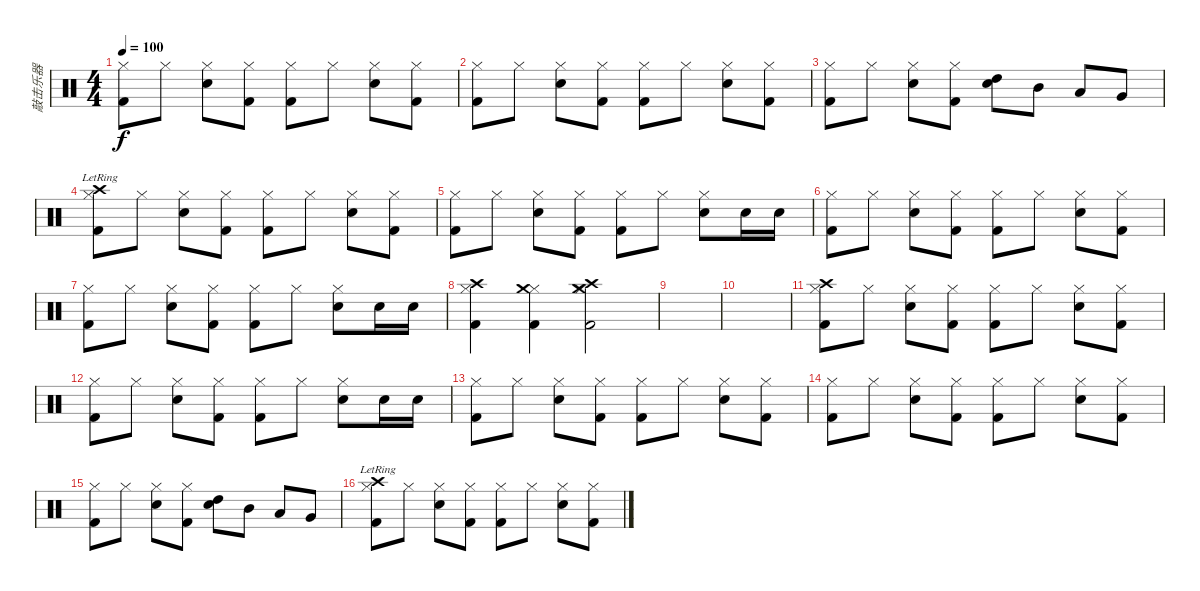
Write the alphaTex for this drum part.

\track ("敲击乐器" "敲击乐器") {instrument percussion}
\staff {score}
\articulation defaults
\ts (4 4)
\tempo 100
\clef neutral
\ks c
("Hi-Hat (closed)" "Kick (hit) 2").8{dy f} "Hi-Hat (closed)".8 ("Hi-Hat (closed)" "Electric Snare (hit)").8 ("Hi-Hat (closed)" "Kick (hit) 2").8 ("Hi-Hat (closed)" "Kick (hit) 2").8 "Hi-Hat (closed)".8 ("Hi-Hat (closed)" "Electric Snare (hit)").8 ("Hi-Hat (closed)" "Kick (hit) 2").8 |
("Hi-Hat (closed)" "Kick (hit) 2").8 "Hi-Hat (closed)".8 ("Hi-Hat (closed)" "Electric Snare (hit)").8 ("Hi-Hat (closed)" "Kick (hit) 2").8 ("Hi-Hat (closed)" "Kick (hit) 2").8 "Hi-Hat (closed)".8 ("Hi-Hat (closed)" "Electric Snare (hit)").8 ("Hi-Hat (closed)" "Kick (hit) 2").8 |
("Hi-Hat (closed)" "Kick (hit) 2").8 "Hi-Hat (closed)".8 ("Hi-Hat (closed)" "Electric Snare (hit)").8 ("Hi-Hat (closed)" "Kick (hit) 2").8 ("High Tom (hit)" "Electric Snare (hit)").8 "Mid Tom (hit)".8 "Low Tom (hit)".8 "Very Low Tom (hit)".8 |
("Hi-Hat (closed)" "Kick (hit) 2" "Crash high (hit)"{lr}).8 "Hi-Hat (closed)".8 ("Hi-Hat (closed)" "Electric Snare (hit)").8 ("Hi-Hat (closed)" "Kick (hit) 2").8 ("Hi-Hat (closed)" "Kick (hit) 2").8 "Hi-Hat (closed)".8 ("Hi-Hat (closed)" "Electric Snare (hit)").8 ("Hi-Hat (closed)" "Kick (hit) 2").8 |
("Hi-Hat (closed)" "Kick (hit) 2").8 "Hi-Hat (closed)".8 ("Hi-Hat (closed)" "Electric Snare (hit)").8 ("Hi-Hat (closed)" "Kick (hit) 2").8 ("Hi-Hat (closed)" "Kick (hit) 2").8 "Hi-Hat (closed)".8 ("Hi-Hat (closed)" "Electric Snare (hit)").8 "Electric Snare (hit)".16 "Electric Snare (hit)".16 |
("Hi-Hat (closed)" "Kick (hit) 2").8 "Hi-Hat (closed)".8 ("Hi-Hat (closed)" "Electric Snare (hit)").8 ("Hi-Hat (closed)" "Kick (hit) 2").8 ("Hi-Hat (closed)" "Kick (hit) 2").8 "Hi-Hat (closed)".8 ("Hi-Hat (closed)" "Electric Snare (hit)").8 ("Hi-Hat (closed)" "Kick (hit) 2").8 |
("Hi-Hat (closed)" "Kick (hit) 2").8 "Hi-Hat (closed)".8 ("Hi-Hat (closed)" "Electric Snare (hit)").8 ("Hi-Hat (closed)" "Kick (hit) 2").8 ("Hi-Hat (closed)" "Kick (hit) 2").8 "Hi-Hat (closed)".8 ("Hi-Hat (closed)" "Electric Snare (hit)").8 "Electric Snare (hit)".16 "Electric Snare (hit)".16 |
("Hi-Hat (closed)" "Kick (hit) 2" "Crash high (hit)").4 ("Hi-Hat (closed)" "Kick (hit) 2" "Crash medium (hit)").4 ("Hi-Hat (closed)" "Kick (hit) 2" "Crash high (hit)" "Crash medium (hit)").2 |
|
|
("Hi-Hat (closed)" "Crash high (hit)" "Kick (hit) 2").8 "Hi-Hat (closed)".8 ("Hi-Hat (closed)" "Electric Snare (hit)").8 ("Hi-Hat (closed)" "Kick (hit) 2").8 ("Hi-Hat (closed)" "Kick (hit) 2").8 "Hi-Hat (closed)".8 ("Hi-Hat (closed)" "Electric Snare (hit)").8 ("Hi-Hat (closed)" "Kick (hit) 2").8 |
("Hi-Hat (closed)" "Kick (hit) 2").8 "Hi-Hat (closed)".8 ("Hi-Hat (closed)" "Electric Snare (hit)").8 ("Hi-Hat (closed)" "Kick (hit) 2").8 ("Hi-Hat (closed)" "Kick (hit) 2").8 "Hi-Hat (closed)".8 ("Hi-Hat (closed)" "Electric Snare (hit)").8 "Electric Snare (hit)".16 "Electric Snare (hit)".16 |
("Hi-Hat (closed)" "Kick (hit) 2").8 "Hi-Hat (closed)".8 ("Hi-Hat (closed)" "Electric Snare (hit)").8 ("Hi-Hat (closed)" "Kick (hit) 2").8 ("Hi-Hat (closed)" "Kick (hit) 2").8 "Hi-Hat (closed)".8 ("Hi-Hat (closed)" "Electric Snare (hit)").8 ("Hi-Hat (closed)" "Kick (hit) 2").8 |
("Hi-Hat (closed)" "Kick (hit) 2").8 "Hi-Hat (closed)".8 ("Hi-Hat (closed)" "Electric Snare (hit)").8 ("Hi-Hat (closed)" "Kick (hit) 2").8 ("Hi-Hat (closed)" "Kick (hit) 2").8 "Hi-Hat (closed)".8 ("Hi-Hat (closed)" "Electric Snare (hit)").8 ("Hi-Hat (closed)" "Kick (hit) 2").8 |
("Hi-Hat (closed)" "Kick (hit) 2").8 "Hi-Hat (closed)".8 ("Hi-Hat (closed)" "Electric Snare (hit)").8 ("Hi-Hat (closed)" "Kick (hit) 2").8 ("High Tom (hit)" "Electric Snare (hit)").8 "Mid Tom (hit)".8 "Low Tom (hit)".8 "Very Low Tom (hit)".8 |
("Hi-Hat (closed)" "Kick (hit) 2" "Crash high (hit)"{lr}).8 "Hi-Hat (closed)".8 ("Hi-Hat (closed)" "Electric Snare (hit)").8 ("Hi-Hat (closed)" "Kick (hit) 2").8 ("Hi-Hat (closed)" "Kick (hit) 2").8 "Hi-Hat (closed)".8 ("Hi-Hat (closed)" "Electric Snare (hit)").8 ("Hi-Hat (closed)" "Kick (hit) 2").8
